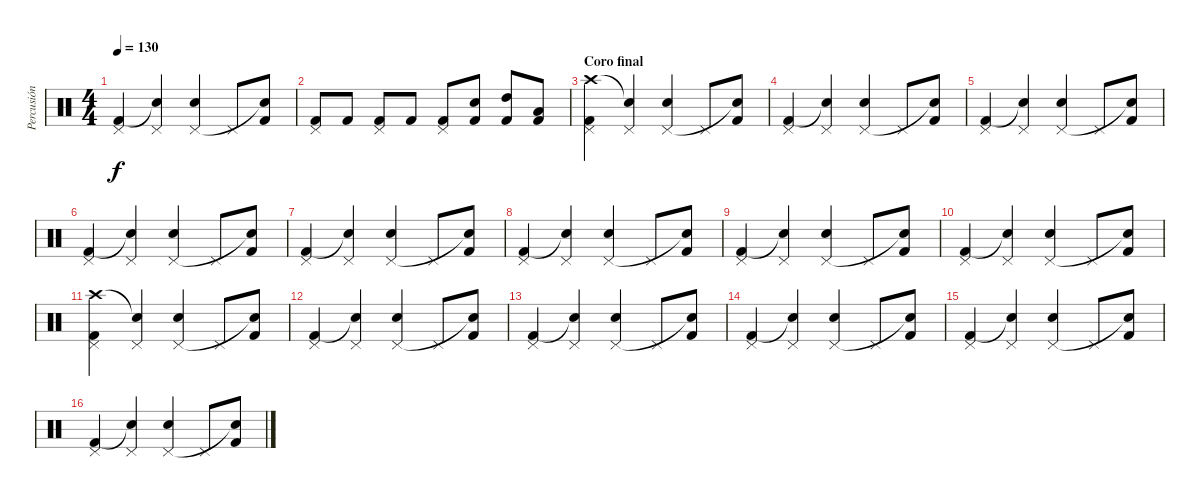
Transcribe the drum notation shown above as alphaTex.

\track ("Percusión" "Percusión") {instrument percussion}
\staff {score}
\articulation defaults
\ts (4 4)
\tempo 130
\clef neutral
\ks c
("Kick (hit) 2" "Pedal Hi-Hat (hit)").4{dy f} ("Snare (hit)"{t} "Pedal Hi-Hat (hit)").4 ("Snare (hit) 2" "Pedal Hi-Hat (hit)").4 "Pedal Hi-Hat (hit)".8 ("Kick (hit) 2" "Snare (hit)"{t}).8 |
("Kick (hit) 2" "Pedal Hi-Hat (hit)").8 "Kick (hit) 2".8 ("Kick (hit) 2" "Pedal Hi-Hat (hit)").8 "Kick (hit) 2".8 ("Kick (hit) 2" "Pedal Hi-Hat (hit)").8 ("Kick (hit) 2" "Snare (hit) 2").8 ("Kick (hit) 2" "High Tom (hit)").8 ("Kick (hit) 2" "Low Tom (hit)").8 |
\section ("" "Coro final")
("Crash high (hit)" "Kick (hit) 2" "Pedal Hi-Hat (hit)").4 ("Snare (hit)"{t} "Pedal Hi-Hat (hit)").4 ("Snare (hit) 2" "Pedal Hi-Hat (hit)").4 "Pedal Hi-Hat (hit)".8 ("Kick (hit) 2" "Snare (hit)"{t}).8 |
("Kick (hit) 2" "Pedal Hi-Hat (hit)").4 ("Snare (hit)"{t} "Pedal Hi-Hat (hit)").4 ("Snare (hit) 2" "Pedal Hi-Hat (hit)").4 "Pedal Hi-Hat (hit)".8 ("Kick (hit) 2" "Snare (hit)"{t}).8 |
("Kick (hit) 2" "Pedal Hi-Hat (hit)").4 ("Snare (hit)"{t} "Pedal Hi-Hat (hit)").4 ("Snare (hit) 2" "Pedal Hi-Hat (hit)").4 "Pedal Hi-Hat (hit)".8 ("Kick (hit) 2" "Snare (hit)"{t}).8 |
("Kick (hit) 2" "Pedal Hi-Hat (hit)").4 ("Snare (hit)"{t} "Pedal Hi-Hat (hit)").4 ("Snare (hit) 2" "Pedal Hi-Hat (hit)").4 "Pedal Hi-Hat (hit)".8 ("Kick (hit) 2" "Snare (hit)"{t}).8 |
("Kick (hit) 2" "Pedal Hi-Hat (hit)").4 ("Snare (hit)"{t} "Pedal Hi-Hat (hit)").4 ("Snare (hit) 2" "Pedal Hi-Hat (hit)").4 "Pedal Hi-Hat (hit)".8 ("Kick (hit) 2" "Snare (hit)"{t}).8 |
("Kick (hit) 2" "Pedal Hi-Hat (hit)").4 ("Snare (hit)"{t} "Pedal Hi-Hat (hit)").4 ("Snare (hit) 2" "Pedal Hi-Hat (hit)").4 "Pedal Hi-Hat (hit)".8 ("Kick (hit) 2" "Snare (hit)"{t}).8 |
("Kick (hit) 2" "Pedal Hi-Hat (hit)").4 ("Snare (hit)"{t} "Pedal Hi-Hat (hit)").4 ("Snare (hit) 2" "Pedal Hi-Hat (hit)").4 "Pedal Hi-Hat (hit)".8 ("Kick (hit) 2" "Snare (hit)"{t}).8 |
("Kick (hit) 2" "Pedal Hi-Hat (hit)").4 ("Snare (hit)"{t} "Pedal Hi-Hat (hit)").4 ("Snare (hit) 2" "Pedal Hi-Hat (hit)").4 "Pedal Hi-Hat (hit)".8 ("Kick (hit) 2" "Snare (hit)"{t}).8 |
("Crash high (hit)" "Kick (hit) 2" "Pedal Hi-Hat (hit)").4 ("Snare (hit)"{t} "Pedal Hi-Hat (hit)").4 ("Snare (hit) 2" "Pedal Hi-Hat (hit)").4 "Pedal Hi-Hat (hit)".8 ("Kick (hit) 2" "Snare (hit)"{t}).8 |
("Kick (hit) 2" "Pedal Hi-Hat (hit)").4 ("Snare (hit)"{t} "Pedal Hi-Hat (hit)").4 ("Snare (hit) 2" "Pedal Hi-Hat (hit)").4 "Pedal Hi-Hat (hit)".8 ("Kick (hit) 2" "Snare (hit)"{t}).8 |
("Kick (hit) 2" "Pedal Hi-Hat (hit)").4 ("Snare (hit)"{t} "Pedal Hi-Hat (hit)").4 ("Snare (hit) 2" "Pedal Hi-Hat (hit)").4 "Pedal Hi-Hat (hit)".8 ("Kick (hit) 2" "Snare (hit)"{t}).8 |
("Kick (hit) 2" "Pedal Hi-Hat (hit)").4 ("Snare (hit)"{t} "Pedal Hi-Hat (hit)").4 ("Snare (hit) 2" "Pedal Hi-Hat (hit)").4 "Pedal Hi-Hat (hit)".8 ("Kick (hit) 2" "Snare (hit)"{t}).8 |
("Kick (hit) 2" "Pedal Hi-Hat (hit)").4 ("Snare (hit)"{t} "Pedal Hi-Hat (hit)").4 ("Snare (hit) 2" "Pedal Hi-Hat (hit)").4 "Pedal Hi-Hat (hit)".8 ("Kick (hit) 2" "Snare (hit)"{t}).8 |
("Kick (hit) 2" "Pedal Hi-Hat (hit)").4 ("Snare (hit)"{t} "Pedal Hi-Hat (hit)").4 ("Snare (hit) 2" "Pedal Hi-Hat (hit)").4 "Pedal Hi-Hat (hit)".8 ("Kick (hit) 2" "Snare (hit)"{t}).8
